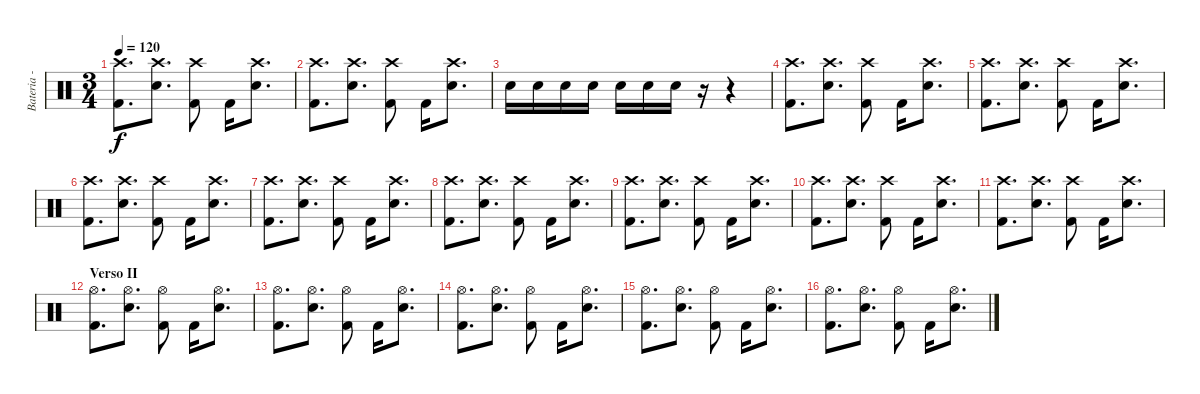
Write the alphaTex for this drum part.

\track ("Bateria - Larzon" "Bateria - ") {instrument percussion}
\staff {score}
\articulation defaults
\ts (3 4)
\tempo 120
\clef neutral
\ks c
("Kick (hit) 2" "Crash high (hit)").8{d dy f} ("Snare (hit) 2" "Crash high (hit)").8{d} ("Kick (hit) 2" "Crash high (hit)").8 "Kick (hit) 2".16 ("Snare (hit) 2" "Crash high (hit)").8{d} |
("Kick (hit) 2" "Crash high (hit)").8{d} ("Snare (hit) 2" "Crash high (hit)").8{d} ("Kick (hit) 2" "Crash high (hit)").8 "Kick (hit) 2".16 ("Snare (hit) 2" "Crash high (hit)").8{d} |
"Snare (hit) 2".16 "Snare (hit) 2".16 "Snare (hit) 2".16 "Snare (hit) 2".16 "Snare (hit) 2".16 "Snare (hit) 2".16 "Snare (hit) 2".16 r.16 r.4 |
("Kick (hit) 2" "Crash high (hit)").8{d} ("Snare (hit) 2" "Crash high (hit)").8{d} ("Kick (hit) 2" "Crash high (hit)").8 "Kick (hit) 2".16 ("Snare (hit) 2" "Crash high (hit)").8{d} |
("Kick (hit) 2" "Crash high (hit)").8{d} ("Snare (hit) 2" "Crash high (hit)").8{d} ("Kick (hit) 2" "Crash high (hit)").8 "Kick (hit) 2".16 ("Snare (hit) 2" "Crash high (hit)").8{d} |
("Kick (hit) 2" "Crash high (hit)").8{d} ("Snare (hit) 2" "Crash high (hit)").8{d} ("Kick (hit) 2" "Crash high (hit)").8 "Kick (hit) 2".16 ("Snare (hit) 2" "Crash high (hit)").8{d} |
("Kick (hit) 2" "Crash high (hit)").8{d} ("Snare (hit) 2" "Crash high (hit)").8{d} ("Kick (hit) 2" "Crash high (hit)").8 "Kick (hit) 2".16 ("Snare (hit) 2" "Crash high (hit)").8{d} |
("Kick (hit) 2" "Crash high (hit)").8{d} ("Snare (hit) 2" "Crash high (hit)").8{d} ("Kick (hit) 2" "Crash high (hit)").8 "Kick (hit) 2".16 ("Snare (hit) 2" "Crash high (hit)").8{d} |
("Kick (hit) 2" "Crash high (hit)").8{d} ("Snare (hit) 2" "Crash high (hit)").8{d} ("Kick (hit) 2" "Crash high (hit)").8 "Kick (hit) 2".16 ("Snare (hit) 2" "Crash high (hit)").8{d} |
("Kick (hit) 2" "Crash high (hit)").8{d} ("Snare (hit) 2" "Crash high (hit)").8{d} ("Kick (hit) 2" "Crash high (hit)").8 "Kick (hit) 2".16 ("Snare (hit) 2" "Crash high (hit)").8{d} |
("Kick (hit) 2" "Crash high (hit)").8{d} ("Snare (hit) 2" "Crash high (hit)").8{d} ("Kick (hit) 2" "Crash high (hit)").8 "Kick (hit) 2".16 ("Snare (hit) 2" "Crash high (hit)").8{d} |
\section ("" "Verso II")
("Kick (hit) 2" "Hi-Hat (open)").8{d} ("Snare (hit) 2" "Hi-Hat (open)").8{d} ("Kick (hit) 2" "Hi-Hat (open)").8 "Kick (hit) 2".16 ("Snare (hit) 2" "Hi-Hat (open)").8{d} |
("Kick (hit) 2" "Hi-Hat (open)").8{d} ("Snare (hit) 2" "Hi-Hat (open)").8{d} ("Kick (hit) 2" "Hi-Hat (open)").8 "Kick (hit) 2".16 ("Snare (hit) 2" "Hi-Hat (open)").8{d} |
("Kick (hit) 2" "Hi-Hat (open)").8{d} ("Snare (hit) 2" "Hi-Hat (open)").8{d} ("Kick (hit) 2" "Hi-Hat (open)").8 "Kick (hit) 2".16 ("Snare (hit) 2" "Hi-Hat (open)").8{d} |
("Kick (hit) 2" "Hi-Hat (open)").8{d} ("Snare (hit) 2" "Hi-Hat (open)").8{d} ("Kick (hit) 2" "Hi-Hat (open)").8 "Kick (hit) 2".16 ("Snare (hit) 2" "Hi-Hat (open)").8{d} |
("Kick (hit) 2" "Hi-Hat (open)").8{d} ("Snare (hit) 2" "Hi-Hat (open)").8{d} ("Kick (hit) 2" "Hi-Hat (open)").8 "Kick (hit) 2".16 ("Snare (hit) 2" "Hi-Hat (open)").8{d}
